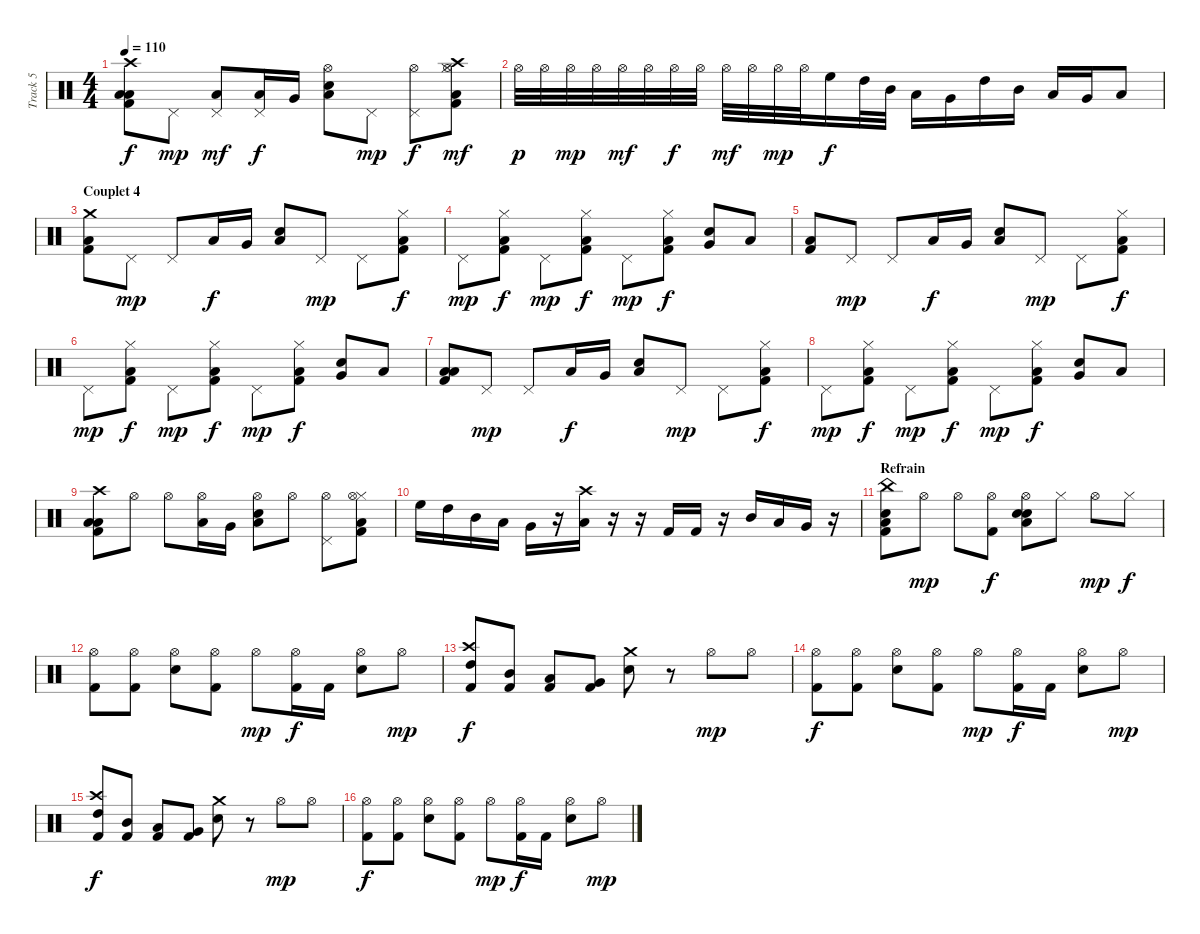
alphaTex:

\track ("Track 5" "Track 5") {instrument percussion}
\staff {score}
\articulation defaults
\ts (4 4)
\tempo 110
\clef neutral
\ks c
("Low Floor Tom (hit)" "Kick (hit) 2" "Low Tom (hit)" "Crash high (hit)").8{dy f} "Pedal Hi-Hat (hit)".8{dy mp} ("Pedal Hi-Hat (hit)" "Low Tom (hit)").8{dy mf} ("Low Tom (hit)" "Pedal Hi-Hat (hit)").16{dy f} "Very Low Tom (hit)".16 ("Low Tom (hit)" "Snare (hit) 2" "Hi-Hat (open)").8 "Pedal Hi-Hat (hit)".8{dy mp} ("Pedal Hi-Hat (hit)" "Hi-Hat (open)").8{dy f} ("Hi-Hat (closed)" "Kick (hit) 2" "Low Tom (hit)" "Hi-Hat (open)" "Crash high (hit)").8{dy mf} |
"Hi-Hat (open)".32{dy p} "Hi-Hat (open)".32 "Hi-Hat (open)".32{dy mp} "Hi-Hat (open)".32 "Hi-Hat (open)".32{dy mf} "Hi-Hat (open)".32 "Hi-Hat (open)".32{dy f} "Hi-Hat (open)".32 "Hi-Hat (open)".32{dy mf} "Hi-Hat (open)".32 "Hi-Hat (open)".32{dy mp} "Hi-Hat (open)".32 "High Floor Tom (hit)".16{dy f} "High Tom (hit)".32 "Mid Tom (hit)".32 "Low Tom (hit)".16 "Very Low Tom (hit)".16 "High Tom (hit)".16 "Mid Tom (hit)".16 "Low Tom (hit)".16 "Very Low Tom (hit)".16 "Low Floor Tom (hit)".8 |
\section ("" "Couplet 4")
("Low Floor Tom (hit)" "Kick (hit) 2" "Crash medium (hit)").8 "Pedal Hi-Hat (hit)".8{dy mp} "Pedal Hi-Hat (hit)".8 "Low Tom (hit)".16{dy f} "Very Low Tom (hit)".16 ("Low Tom (hit)" "Snare (hit) 2").8 "Pedal Hi-Hat (hit)".8{dy mp} "Pedal Hi-Hat (hit)".8 ("Hi-Hat (closed)" "Kick (hit) 2" "Low Tom (hit)").8{dy f} |
"Pedal Hi-Hat (hit)".8{dy mp} ("Hi-Hat (closed)" "Kick (hit) 2" "Low Tom (hit)").8{dy f} "Pedal Hi-Hat (hit)".8{dy mp} ("Hi-Hat (closed)" "Kick (hit) 2" "Low Tom (hit)").8{dy f} "Pedal Hi-Hat (hit)".8{dy mp} ("Hi-Hat (closed)" "Kick (hit) 2" "Low Tom (hit)").8{dy f} ("Very Low Tom (hit)" "Electric Snare (hit)").8 "Low Floor Tom (hit)".8 |
("Low Floor Tom (hit)" "Kick (hit) 2").8 "Pedal Hi-Hat (hit)".8{dy mp} "Pedal Hi-Hat (hit)".8 "Low Tom (hit)".16{dy f} "Very Low Tom (hit)".16 ("Low Tom (hit)" "Snare (hit) 2").8 "Pedal Hi-Hat (hit)".8{dy mp} "Pedal Hi-Hat (hit)".8 ("Hi-Hat (closed)" "Kick (hit) 2" "Low Tom (hit)").8{dy f} |
"Pedal Hi-Hat (hit)".8{dy mp} ("Hi-Hat (closed)" "Kick (hit) 2" "Low Tom (hit)").8{dy f} "Pedal Hi-Hat (hit)".8{dy mp} ("Hi-Hat (closed)" "Kick (hit) 2" "Low Tom (hit)").8{dy f} "Pedal Hi-Hat (hit)".8{dy mp} ("Hi-Hat (closed)" "Kick (hit) 2" "Low Tom (hit)").8{dy f} ("Very Low Tom (hit)" "Electric Snare (hit)").8 "Low Floor Tom (hit)".8 |
("Low Floor Tom (hit)" "Kick (hit) 2" "Low Tom (hit)").8 "Pedal Hi-Hat (hit)".8{dy mp} "Pedal Hi-Hat (hit)".8 "Low Tom (hit)".16{dy f} "Very Low Tom (hit)".16 ("Low Tom (hit)" "Snare (hit) 2").8 "Pedal Hi-Hat (hit)".8{dy mp} "Pedal Hi-Hat (hit)".8 ("Hi-Hat (closed)" "Kick (hit) 2" "Low Tom (hit)").8{dy f} |
"Pedal Hi-Hat (hit)".8{dy mp} ("Hi-Hat (closed)" "Kick (hit) 2" "Low Tom (hit)").8{dy f} "Pedal Hi-Hat (hit)".8{dy mp} ("Hi-Hat (closed)" "Kick (hit) 2" "Low Tom (hit)").8{dy f} "Pedal Hi-Hat (hit)".8{dy mp} ("Hi-Hat (closed)" "Kick (hit) 2" "Low Tom (hit)").8{dy f} ("Very Low Tom (hit)" "Electric Snare (hit)").8 "Low Floor Tom (hit)".8 |
("Low Floor Tom (hit)" "Kick (hit) 2" "Low Tom (hit)" "Crash high (hit)").8 "Hi-Hat (open)".8 "Hi-Hat (open)".8 ("Low Tom (hit)" "Hi-Hat (open)").16 "Very Low Tom (hit)".16 ("Low Tom (hit)" "Snare (hit) 2" "Hi-Hat (open)").8 "Hi-Hat (open)".8 ("Pedal Hi-Hat (hit)" "Hi-Hat (open)").8 ("Hi-Hat (closed)" "Kick (hit) 2" "Low Tom (hit)" "Hi-Hat (open)").8 |
"High Floor Tom (hit)".16 "High Tom (hit)".16 "Mid Tom (hit)".16 "Low Tom (hit)".16 "Very Low Tom (hit)".16 r.16 ("Low Floor Tom (hit)" "Crash high (hit)").16 r.16 r.16 "Kick (hit) 2".16 "Kick (hit) 2".16 r.16 "Mid Tom (hit)".16 "Low Tom (hit)".16 "Very Low Tom (hit)".16 r.16 |
\section ("" "Refrain")
("Kick (hit) 2" "Low Tom (hit)" "China (hit)" "Snare (hit) 2").8 "Hi-Hat (open)".8{dy mp} "Hi-Hat (open)".8 ("Hi-Hat (open)" "Kick (hit) 2").8{dy f} ("Hi-Hat (open)" "Snare (hit) 2" "Electric Snare (hit)" "Low Tom (hit)").8 "Hi-Hat (closed)".8 "Hi-Hat (open)".8{dy mp} "Hi-Hat (closed)".8{dy f} |
("Hi-Hat (open)" "Kick (hit) 2").8 ("Hi-Hat (open)" "Kick (hit) 2").8 ("Hi-Hat (open)" "Snare (hit) 2").8 ("Hi-Hat (open)" "Kick (hit) 2").8 "Hi-Hat (open)".8{dy mp} ("Hi-Hat (open)" "Kick (hit) 2").16{dy f} "Kick (hit) 2".16 ("Hi-Hat (open)" "Snare (hit) 2").8 "Hi-Hat (open)".8{dy mp} |
("High Tom (hit)" "Kick (hit) 2" "Crash high (hit)").8{dy f} ("Mid Tom (hit)" "Kick (hit) 2").8 ("Low Tom (hit)" "Kick (hit) 2").8 ("Very Low Tom (hit)" "Kick (hit) 2").8 ("Crash medium (hit)" "Snare (hit) 2").8 r.8 "Hi-Hat (open)".8{dy mp} "Hi-Hat (open)".8 |
("Hi-Hat (open)" "Kick (hit) 2").8{dy f} ("Hi-Hat (open)" "Kick (hit) 2").8 ("Hi-Hat (open)" "Snare (hit) 2").8 ("Hi-Hat (open)" "Kick (hit) 2").8 "Hi-Hat (open)".8{dy mp} ("Hi-Hat (open)" "Kick (hit) 2").16{dy f} "Kick (hit) 2".16 ("Hi-Hat (open)" "Snare (hit) 2").8 "Hi-Hat (open)".8{dy mp} |
("High Tom (hit)" "Kick (hit) 2" "Crash high (hit)").8{dy f} ("Mid Tom (hit)" "Kick (hit) 2").8 ("Low Tom (hit)" "Kick (hit) 2").8 ("Very Low Tom (hit)" "Kick (hit) 2").8 ("Crash medium (hit)" "Snare (hit) 2").8 r.8 "Hi-Hat (open)".8{dy mp} "Hi-Hat (open)".8 |
("Hi-Hat (open)" "Kick (hit) 2").8{dy f} ("Hi-Hat (open)" "Kick (hit) 2").8 ("Hi-Hat (open)" "Snare (hit) 2").8 ("Hi-Hat (open)" "Kick (hit) 2").8 "Hi-Hat (open)".8{dy mp} ("Hi-Hat (open)" "Kick (hit) 2").16{dy f} "Kick (hit) 2".16 ("Hi-Hat (open)" "Snare (hit) 2").8 "Hi-Hat (open)".8{dy mp}
